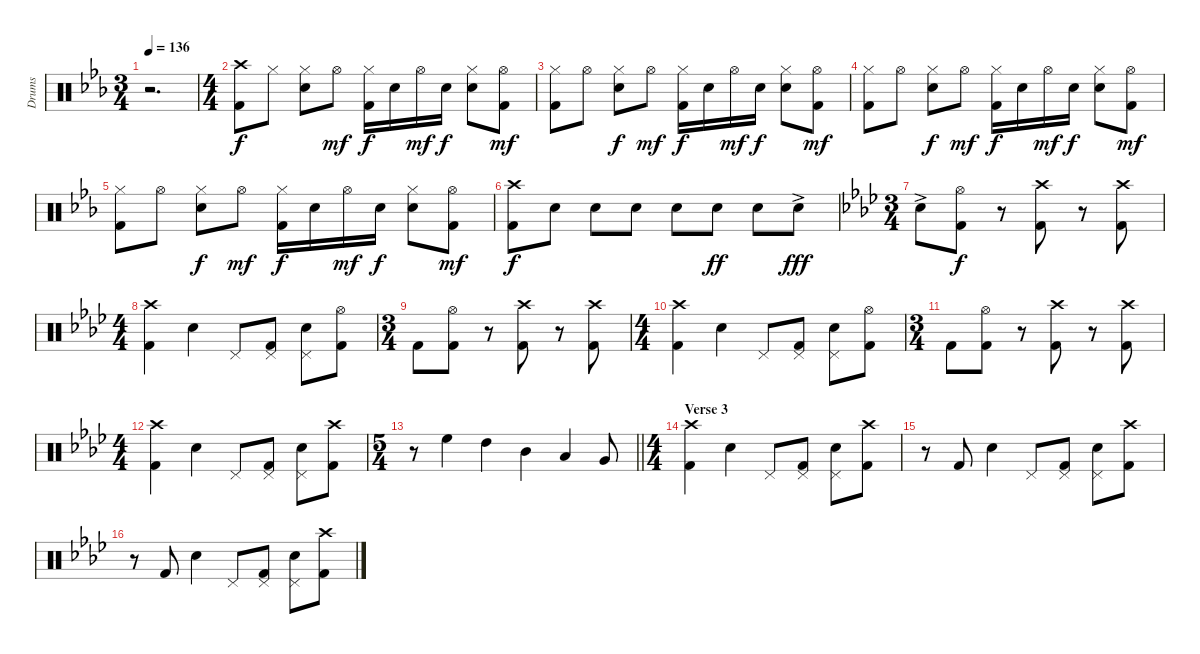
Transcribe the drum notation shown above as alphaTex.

\track ("Drums" "Drums") {instrument percussion}
\staff {score}
\articulation defaults
\ts (3 4)
\tempo 136
\clef neutral
\ks eb
r.2{d dy mf} |
\ts (4 4)
("Crash high (hit)" "Kick (hit) 2").8{dy f} "Hi-Hat (closed)".8 ("Hi-Hat (closed)" "Electric Snare (hit)").8 "Hi-Hat (open)".8{dy mf} ("Hi-Hat (closed)" "Kick (hit) 2").16{dy f} "Electric Snare (hit)".16 "Hi-Hat (open)".16{dy mf} "Electric Snare (hit)".16{dy f} ("Hi-Hat (closed)" "Electric Snare (hit)").8 ("Hi-Hat (open)" "Kick (hit) 2").8{dy mf} |
("Hi-Hat (closed)" "Kick (hit) 2").8 "Hi-Hat (open)".8 ("Hi-Hat (closed)" "Electric Snare (hit)").8{dy f} "Hi-Hat (open)".8{dy mf} ("Hi-Hat (closed)" "Kick (hit) 2").16{dy f} "Electric Snare (hit)".16 "Hi-Hat (open)".16{dy mf} "Electric Snare (hit)".16{dy f} ("Hi-Hat (closed)" "Electric Snare (hit)").8 ("Hi-Hat (open)" "Kick (hit) 2").8{dy mf} |
("Hi-Hat (closed)" "Kick (hit) 2").8 "Hi-Hat (open)".8 ("Hi-Hat (closed)" "Electric Snare (hit)").8{dy f} "Hi-Hat (open)".8{dy mf} ("Hi-Hat (closed)" "Kick (hit) 2").16{dy f} "Electric Snare (hit)".16 "Hi-Hat (open)".16{dy mf} "Electric Snare (hit)".16{dy f} ("Hi-Hat (closed)" "Electric Snare (hit)").8 ("Hi-Hat (open)" "Kick (hit) 2").8{dy mf} |
("Hi-Hat (closed)" "Kick (hit) 2").8 "Hi-Hat (open)".8 ("Hi-Hat (closed)" "Electric Snare (hit)").8{dy f} "Hi-Hat (open)".8{dy mf} ("Hi-Hat (closed)" "Kick (hit) 2").16{dy f} "Electric Snare (hit)".16 "Hi-Hat (open)".16{dy mf} "Electric Snare (hit)".16{dy f} ("Hi-Hat (closed)" "Electric Snare (hit)").8 ("Hi-Hat (open)" "Kick (hit) 2").8{dy mf} |
("Crash high (hit)" "Kick (hit) 2").8{dy f} "Electric Snare (hit)".8 "Electric Snare (hit)".8 "Electric Snare (hit)".8 "Electric Snare (hit)".8 "Electric Snare (hit)".8{dy ff} "Electric Snare (hit)".8 "Electric Snare (hit)"{ac}.8{dy fff} |
\ts (3 4)
\ks ab "Electric Snare (hit)"{ac}.8
("Hi-Hat (open)" "Kick (hit) 2").8{dy f} r.8 ("Crash high (hit)" "Kick (hit) 2").8 r.8 ("Crash high (hit)" "Kick (hit) 2").8 |
\ts (4 4)
("Crash high (hit)" "Kick (hit) 2").4 "Electric Snare (hit)".4 "Pedal Hi-Hat (hit)".8 ("Pedal Hi-Hat (hit)" "Kick (hit) 2").8 ("Pedal Hi-Hat (hit)" "Electric Snare (hit)").8 ("Hi-Hat (open)" "Kick (hit) 2").8 |
\ts (3 4)
"Kick (hit) 2".8 ("Hi-Hat (open)" "Kick (hit) 2").8 r.8 ("Crash high (hit)" "Kick (hit) 2").8 r.8 ("Crash high (hit)" "Kick (hit) 2").8 |
\ts (4 4)
("Crash high (hit)" "Kick (hit) 2").4 "Electric Snare (hit)".4 "Pedal Hi-Hat (hit)".8 ("Pedal Hi-Hat (hit)" "Kick (hit) 2").8 ("Pedal Hi-Hat (hit)" "Electric Snare (hit)").8 ("Hi-Hat (open)" "Kick (hit) 2").8 |
\ts (3 4)
"Kick (hit) 2".8 ("Hi-Hat (open)" "Kick (hit) 2").8 r.8 ("Crash high (hit)" "Kick (hit) 2").8 r.8 ("Crash high (hit)" "Kick (hit) 2").8 |
\ts (4 4)
("Crash high (hit)" "Kick (hit) 2").4 "Electric Snare (hit)".4 "Pedal Hi-Hat (hit)".8 ("Pedal Hi-Hat (hit)" "Kick (hit) 2").8 ("Pedal Hi-Hat (hit)" "Electric Snare (hit)").8 ("Crash high (hit)" "Kick (hit) 2").8 |
\ts (5 4)
\barLineRight lightlight
r.8 "High Floor Tom (hit)".4 "High Tom (hit)".4 "Mid Tom (hit)".4 "Low Tom (hit)".4 "Very Low Tom (hit)".8 |
\ts (4 4)
\section ("" "Verse 3")
("Crash high (hit)" "Kick (hit) 2").4 "Electric Snare (hit)".4 "Pedal Hi-Hat (hit)".8 ("Pedal Hi-Hat (hit)" "Kick (hit) 2").8 ("Pedal Hi-Hat (hit)" "Electric Snare (hit)").8 ("Crash high (hit)" "Kick (hit) 2").8 |
r.8 "Kick (hit) 2".8 "Electric Snare (hit)".4 "Pedal Hi-Hat (hit)".8 ("Pedal Hi-Hat (hit)" "Kick (hit) 2").8 ("Pedal Hi-Hat (hit)" "Electric Snare (hit)").8 ("Crash high (hit)" "Kick (hit) 2").8 |
r.8 "Kick (hit) 2".8 "Electric Snare (hit)".4 "Pedal Hi-Hat (hit)".8 ("Pedal Hi-Hat (hit)" "Kick (hit) 2").8 ("Pedal Hi-Hat (hit)" "Electric Snare (hit)").8 ("Crash high (hit)" "Kick (hit) 2").8
